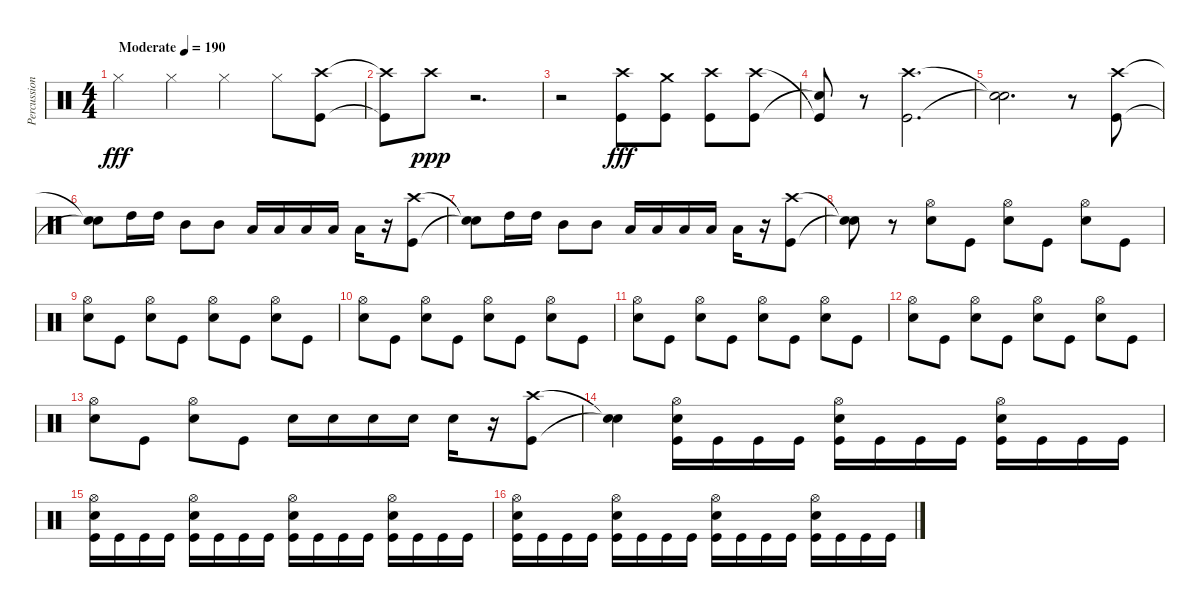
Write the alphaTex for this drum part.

\track ("Percussion" "Percussion") {instrument percussion}
\staff {score}
\articulation defaults
\ts (4 4)
\tempo (190 "Moderate")
\clef neutral
\ks c "Hi-Hat (closed)".4{dy fff} "Hi-Hat (closed)".4 "Hi-Hat (closed)".4 "Hi-Hat (closed)".8
("Crash high (hit)" "Kick (hit)").8 |
("Crash high (hit)"{t} "Kick (hit)"{t}).8 "Crash high (hit)".8{dy ppp} r.2{d} |
r.2 ("Kick (hit)" "Crash high (hit)").8{dy fff} ("Kick (hit)" "Crash medium (hit)").8 ("Kick (hit)" "Crash high (hit)").8 ("Kick (hit)" "Crash high (hit)").8 |
("Snare (hit)"{t} "Kick (hit)"{t}).8 r.8 ("Crash high (hit)" "Kick (hit)").2{d} |
("Snare (hit)"{t} "Snare (hit)"{t}).2{d} r.8 ("Crash high (hit)" "Kick (hit)").8 |
("Snare (hit)"{t} "Snare (hit)"{t}).8 "High Tom (hit)".16 "High Tom (hit)".16 "Mid Tom (hit)".8 "Mid Tom (hit)".8 "Low Tom (hit)".16 "Low Tom (hit)".16 "Low Tom (hit)".16 "Low Tom (hit)".16 "Low Tom (hit)".16 r.16 ("Crash high (hit)" "Kick (hit)").8 |
("Snare (hit)"{t} "Snare (hit)"{t}).8 "High Tom (hit)".16 "High Tom (hit)".16 "Mid Tom (hit)".8 "Mid Tom (hit)".8 "Low Tom (hit)".16 "Low Tom (hit)".16 "Low Tom (hit)".16 "Low Tom (hit)".16 "Low Tom (hit)".16 r.16 ("Crash high (hit)" "Kick (hit)").8 |
("Snare (hit)"{t} "Snare (hit)"{t}).8 r.8 ("Hi-Hat (open)" "Snare (hit) 2").8 "Kick (hit)".8 ("Hi-Hat (open)" "Snare (hit) 2").8 "Kick (hit)".8 ("Hi-Hat (open)" "Snare (hit) 2").8 "Kick (hit)".8 |
("Hi-Hat (open)" "Snare (hit) 2").8 "Kick (hit)".8 ("Hi-Hat (open)" "Snare (hit) 2").8 "Kick (hit)".8 ("Hi-Hat (open)" "Snare (hit) 2").8 "Kick (hit)".8 ("Hi-Hat (open)" "Snare (hit) 2").8 "Kick (hit)".8 |
("Hi-Hat (open)" "Snare (hit) 2").8 "Kick (hit)".8 ("Hi-Hat (open)" "Snare (hit) 2").8 "Kick (hit)".8 ("Hi-Hat (open)" "Snare (hit) 2").8 "Kick (hit)".8 ("Hi-Hat (open)" "Snare (hit) 2").8 "Kick (hit)".8 |
("Hi-Hat (open)" "Snare (hit) 2").8 "Kick (hit)".8 ("Hi-Hat (open)" "Snare (hit) 2").8 "Kick (hit)".8 ("Hi-Hat (open)" "Snare (hit) 2").8 "Kick (hit)".8 ("Hi-Hat (open)" "Snare (hit) 2").8 "Kick (hit)".8 |
("Hi-Hat (open)" "Snare (hit) 2").8 "Kick (hit)".8 ("Hi-Hat (open)" "Snare (hit) 2").8 "Kick (hit)".8 ("Hi-Hat (open)" "Snare (hit) 2").8 "Kick (hit)".8 ("Hi-Hat (open)" "Snare (hit) 2").8 "Kick (hit)".8 |
("Hi-Hat (open)" "Snare (hit) 2").8 "Kick (hit)".8 ("Hi-Hat (open)" "Snare (hit) 2").8 "Kick (hit)".8 "Snare (hit) 2".16 "Snare (hit) 2".16 "Snare (hit) 2".16 "Snare (hit) 2".16 "Snare (hit) 2".16 r.16 ("Crash high (hit)" "Kick (hit)").8 |
("Snare (hit)"{t} "Snare (hit)"{t}).4 ("Snare (hit) 2" "Kick (hit)" "Hi-Hat (open)").16 "Kick (hit)".16 "Kick (hit)".16 "Kick (hit)".16 ("Snare (hit) 2" "Kick (hit)" "Hi-Hat (open)").16 "Kick (hit)".16 "Kick (hit)".16 "Kick (hit)".16 ("Snare (hit) 2" "Kick (hit)" "Hi-Hat (open)").16 "Kick (hit)".16 "Kick (hit)".16 "Kick (hit)".16 |
("Snare (hit) 2" "Kick (hit)" "Hi-Hat (open)").16 "Kick (hit)".16 "Kick (hit)".16 "Kick (hit)".16 ("Snare (hit) 2" "Kick (hit)" "Hi-Hat (open)").16 "Kick (hit)".16 "Kick (hit)".16 "Kick (hit)".16 ("Snare (hit) 2" "Kick (hit)" "Hi-Hat (open)").16 "Kick (hit)".16 "Kick (hit)".16 "Kick (hit)".16 ("Snare (hit) 2" "Kick (hit)" "Hi-Hat (open)").16 "Kick (hit)".16 "Kick (hit)".16 "Kick (hit)".16 |
("Snare (hit) 2" "Kick (hit)" "Hi-Hat (open)").16 "Kick (hit)".16 "Kick (hit)".16 "Kick (hit)".16 ("Snare (hit) 2" "Kick (hit)" "Hi-Hat (open)").16 "Kick (hit)".16 "Kick (hit)".16 "Kick (hit)".16 ("Snare (hit) 2" "Kick (hit)" "Hi-Hat (open)").16 "Kick (hit)".16 "Kick (hit)".16 "Kick (hit)".16 ("Snare (hit) 2" "Kick (hit)" "Hi-Hat (open)").16 "Kick (hit)".16 "Kick (hit)".16 "Kick (hit)".16
